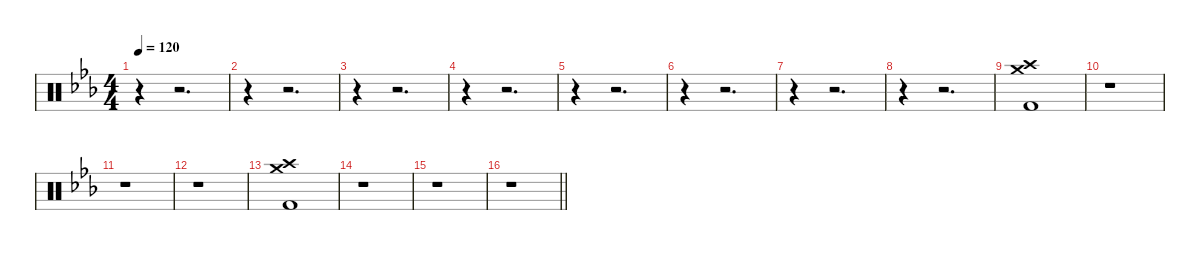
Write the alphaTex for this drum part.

\defaultSystemsLayout 4
\hideDynamics
\bracketExtendMode nobrackets
\singleTrackTrackNamePolicy hidden
\multiTrackTrackNamePolicy hidden
\firstSystemTrackNameMode fullname
\firstSystemTrackNameOrientation horizontal
\otherSystemsTrackNameOrientation horizontal
\track ("Drums" "drm.") {instrument percussion}
\staff {score}
\articulation defaults
\ts (4 4)
\beaming (8 2 2 2 2)
\tempo 120
\clef neutral
\ks cminor
r.4{dy f} r.2{d} |
r.4 r.2{d} |
r.4 r.2{d} |
r.4 r.2{d} |
r.4 r.2{d} |
r.4 r.2{d} |
r.4 r.2{d} |
r.4 r.2{d} |
("Crash high (hit)"{acc forcenatural} "Crash medium (hit)"{acc forcenatural} "Kick (hit) 2"{acc forcenatural}).1 |
r.1 |
r.1 |
r.1 |
("Crash high (hit)"{acc forcenatural} "Crash medium (hit)"{acc forcenatural} "Kick (hit) 2"{acc forcenatural}).1 |
r.1 |
r.1 |
\barLineRight lightlight
r.1
